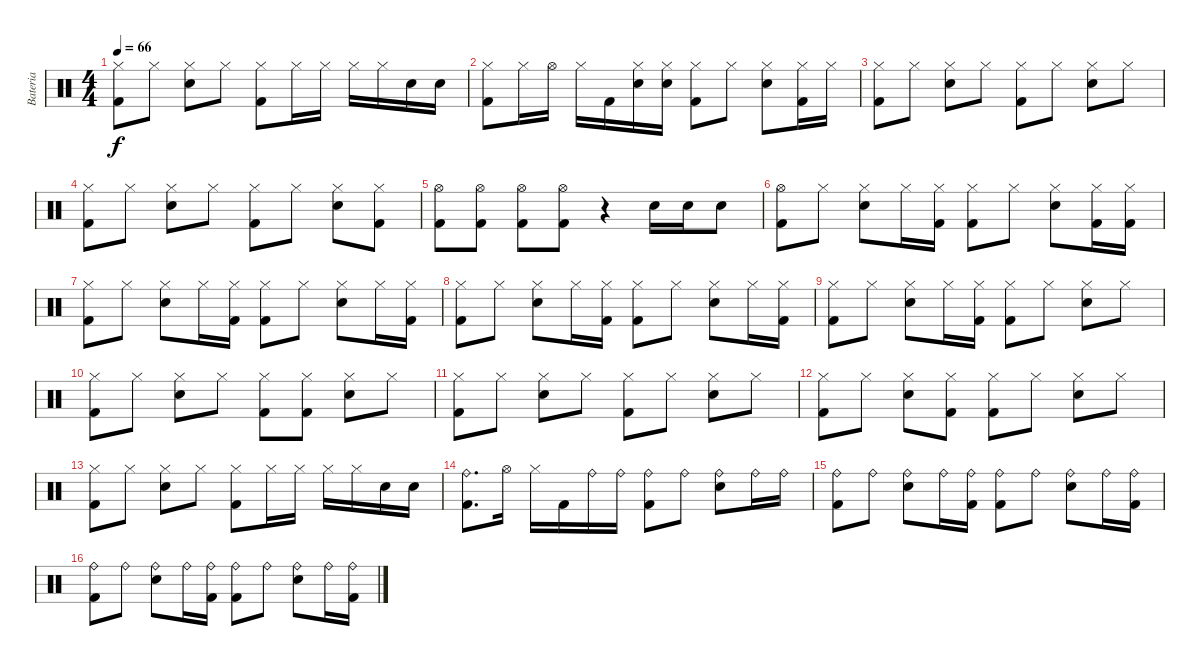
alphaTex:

\track ("Bateria" "Bateria") {instrument percussion}
\staff {score}
\articulation defaults
\ts (4 4)
\tempo 66
\clef neutral
\ks c
("Hi-Hat (closed)" "Kick (hit) 2").8{dy f} "Hi-Hat (closed)".8 ("Hi-Hat (closed)" "Snare (hit) 2").8 "Hi-Hat (closed)".8 ("Hi-Hat (closed)" "Kick (hit) 2").8 "Hi-Hat (closed)".16 "Hi-Hat (closed)".16 "Hi-Hat (closed)".16 "Hi-Hat (closed)".16 "Snare (hit) 2".16 "Snare (hit) 2".16 |
("Hi-Hat (closed)" "Kick (hit) 2").8 "Hi-Hat (closed)".16 "Hi-Hat (open)".16 "Hi-Hat (closed)".16 "Kick (hit) 2".16 ("Hi-Hat (closed)" "Snare (hit) 2").16 ("Hi-Hat (closed)" "Snare (hit) 2").16 ("Hi-Hat (closed)" "Kick (hit) 2").8 "Hi-Hat (closed)".8 ("Hi-Hat (closed)" "Snare (hit) 2").8 ("Hi-Hat (closed)" "Kick (hit) 2").16 "Hi-Hat (closed)".16 |
("Hi-Hat (closed)" "Kick (hit) 2").8 "Hi-Hat (closed)".8 ("Hi-Hat (closed)" "Snare (hit) 2").8 "Hi-Hat (closed)".8 ("Hi-Hat (closed)" "Kick (hit) 2").8 "Hi-Hat (closed)".8 ("Hi-Hat (closed)" "Snare (hit) 2").8 "Hi-Hat (closed)".8 |
("Hi-Hat (closed)" "Kick (hit) 2").8 "Hi-Hat (closed)".8 ("Hi-Hat (closed)" "Snare (hit) 2").8 "Hi-Hat (closed)".8 ("Hi-Hat (closed)" "Kick (hit) 2").8 "Hi-Hat (closed)".8 ("Hi-Hat (closed)" "Snare (hit) 2").8 ("Hi-Hat (closed)" "Kick (hit) 2").8 |
("Hi-Hat (open)" "Kick (hit) 2").8 ("Hi-Hat (open)" "Kick (hit) 2").8 ("Hi-Hat (open)" "Kick (hit) 2").8 ("Hi-Hat (open)" "Kick (hit) 2").8 r.4 "Snare (hit) 2".16 "Snare (hit) 2".16 "Snare (hit) 2".8 |
("Hi-Hat (open)" "Kick (hit) 2").8 "Hi-Hat (closed)".8 ("Hi-Hat (closed)" "Snare (hit) 2").8 "Hi-Hat (closed)".16 ("Hi-Hat (closed)" "Kick (hit) 2").16 ("Hi-Hat (closed)" "Kick (hit) 2").8 "Hi-Hat (closed)".8 ("Hi-Hat (closed)" "Snare (hit) 2").8 ("Hi-Hat (closed)" "Kick (hit) 2").16 ("Hi-Hat (closed)" "Kick (hit) 2").16 |
("Hi-Hat (closed)" "Kick (hit) 2").8 "Hi-Hat (closed)".8 ("Hi-Hat (closed)" "Snare (hit) 2").8 "Hi-Hat (closed)".16 ("Hi-Hat (closed)" "Kick (hit) 2").16 ("Hi-Hat (closed)" "Kick (hit) 2").8 "Hi-Hat (closed)".8 ("Hi-Hat (closed)" "Snare (hit) 2").8 "Hi-Hat (closed)".16 ("Hi-Hat (closed)" "Kick (hit) 2").16 |
("Hi-Hat (closed)" "Kick (hit) 2").8 "Hi-Hat (closed)".8 ("Hi-Hat (closed)" "Snare (hit) 2").8 "Hi-Hat (closed)".16 ("Hi-Hat (closed)" "Kick (hit) 2").16 ("Hi-Hat (closed)" "Kick (hit) 2").8 "Hi-Hat (closed)".8 ("Hi-Hat (closed)" "Snare (hit) 2").8 "Hi-Hat (closed)".16 ("Hi-Hat (closed)" "Kick (hit) 2").16 |
("Hi-Hat (closed)" "Kick (hit) 2").8 "Hi-Hat (closed)".8 ("Hi-Hat (closed)" "Snare (hit) 2").8 "Hi-Hat (closed)".16 ("Hi-Hat (closed)" "Kick (hit) 2").16 ("Hi-Hat (closed)" "Kick (hit) 2").8 "Hi-Hat (closed)".8 ("Hi-Hat (closed)" "Snare (hit) 2").8 "Hi-Hat (closed)".8 |
("Hi-Hat (closed)" "Kick (hit) 2").8 "Hi-Hat (closed)".8 ("Hi-Hat (closed)" "Snare (hit) 2").8 "Hi-Hat (closed)".8 ("Hi-Hat (closed)" "Kick (hit) 2").8 ("Hi-Hat (closed)" "Kick (hit) 2").8 ("Hi-Hat (closed)" "Snare (hit) 2").8 "Hi-Hat (closed)".8 |
("Hi-Hat (closed)" "Kick (hit) 2").8 "Hi-Hat (closed)".8 ("Hi-Hat (closed)" "Snare (hit) 2").8 "Hi-Hat (closed)".8 ("Hi-Hat (closed)" "Kick (hit) 2").8 "Hi-Hat (closed)".8 ("Hi-Hat (closed)" "Snare (hit) 2").8 "Hi-Hat (closed)".8 |
("Hi-Hat (closed)" "Kick (hit) 2").8 "Hi-Hat (closed)".8 ("Hi-Hat (closed)" "Snare (hit) 2").8 ("Hi-Hat (closed)" "Kick (hit) 2").8 ("Hi-Hat (closed)" "Kick (hit) 2").8 "Hi-Hat (closed)".8 ("Hi-Hat (closed)" "Snare (hit) 2").8 "Hi-Hat (closed)".8 |
("Hi-Hat (closed)" "Kick (hit) 2").8 "Hi-Hat (closed)".8 ("Hi-Hat (closed)" "Snare (hit) 2").8 "Hi-Hat (closed)".8 ("Hi-Hat (closed)" "Kick (hit) 2").8 "Hi-Hat (closed)".16 "Hi-Hat (closed)".16 "Hi-Hat (closed)".16 "Hi-Hat (closed)".16 "Snare (hit) 2".16 "Snare (hit) 2".16 |
("Ride (bell)" "Kick (hit) 2").8{d} "Hi-Hat (open)".16 "Hi-Hat (closed)".16 "Kick (hit) 2".16 "Ride (bell)".16 "Ride (bell)".16 ("Ride (bell)" "Kick (hit) 2").8 "Ride (bell)".8 ("Ride (bell)" "Snare (hit) 2").8 "Ride (bell)".16 "Ride (bell)".16 |
("Ride (bell)" "Kick (hit) 2").8 "Ride (bell)".8 ("Ride (bell)" "Snare (hit) 2").8 "Ride (bell)".16 ("Ride (bell)" "Kick (hit) 2").16 ("Ride (bell)" "Kick (hit) 2").8 "Ride (bell)".8 ("Ride (bell)" "Snare (hit) 2").8 "Ride (bell)".16 ("Ride (bell)" "Kick (hit) 2").16 |
("Ride (bell)" "Kick (hit) 2").8 "Ride (bell)".8 ("Ride (bell)" "Snare (hit) 2").8 "Ride (bell)".16 ("Ride (bell)" "Kick (hit) 2").16 ("Ride (bell)" "Kick (hit) 2").8 "Ride (bell)".8 ("Ride (bell)" "Snare (hit) 2").8 "Ride (bell)".16 ("Ride (bell)" "Kick (hit) 2").16
